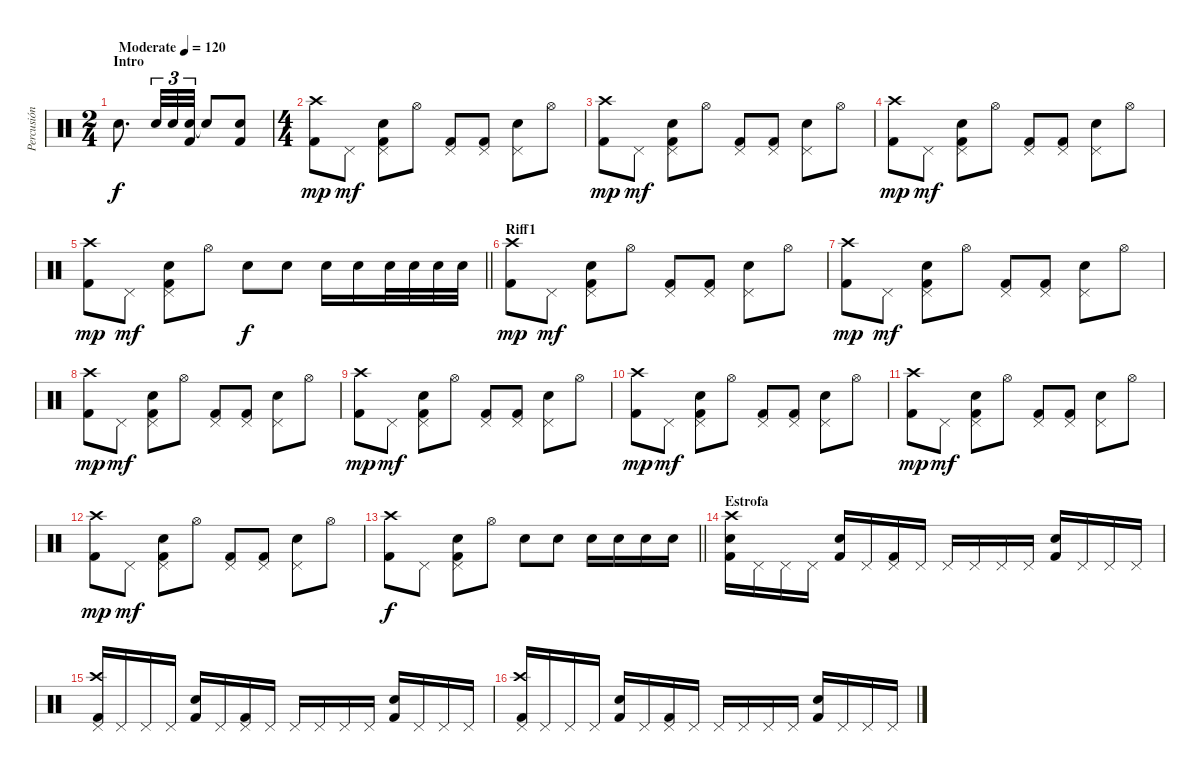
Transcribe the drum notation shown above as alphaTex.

\track ("Percusión" "Percusión") {instrument percussion}
\staff {score}
\articulation defaults
\ts (2 4)
\section ("" "Intro")
\tempo (120 "Moderate")
\clef neutral
\ks c "Snare (hit) 2".8{d dy f} "Snare (hit) 2".32{tu (3 2)} "Snare (hit) 2".32{tu (3 2)}
("Snare (hit) 2" "Kick (hit) 2").32{tu (3 2)} "Snare (hit) 2"{t}.8 ("Snare (hit) 2" "Kick (hit) 2").8 |
\ts (4 4)
("Crash high (hit)" "Kick (hit) 2").8{dy mp} "Pedal Hi-Hat (hit)".8{dy mf} ("Snare (hit) 2" "Kick (hit) 2" "Pedal Hi-Hat (hit)").8 "Hi-Hat (open)".8 ("Kick (hit) 2" "Pedal Hi-Hat (hit)").8 ("Kick (hit) 2" "Pedal Hi-Hat (hit)").8 ("Snare (hit) 2" "Pedal Hi-Hat (hit)").8 "Hi-Hat (open)".8 |
("Crash high (hit)" "Kick (hit) 2").8{dy mp} "Pedal Hi-Hat (hit)".8{dy mf} ("Snare (hit) 2" "Kick (hit) 2" "Pedal Hi-Hat (hit)").8 "Hi-Hat (open)".8 ("Kick (hit) 2" "Pedal Hi-Hat (hit)").8 ("Kick (hit) 2" "Pedal Hi-Hat (hit)").8 ("Snare (hit) 2" "Pedal Hi-Hat (hit)").8 "Hi-Hat (open)".8 |
("Crash high (hit)" "Kick (hit) 2").8{dy mp} "Pedal Hi-Hat (hit)".8{dy mf} ("Snare (hit) 2" "Kick (hit) 2" "Pedal Hi-Hat (hit)").8 "Hi-Hat (open)".8 ("Kick (hit) 2" "Pedal Hi-Hat (hit)").8 ("Kick (hit) 2" "Pedal Hi-Hat (hit)").8 ("Snare (hit) 2" "Pedal Hi-Hat (hit)").8 "Hi-Hat (open)".8 |
\barLineRight lightlight
("Crash high (hit)" "Kick (hit) 2").8{dy mp} "Pedal Hi-Hat (hit)".8{dy mf} ("Snare (hit) 2" "Kick (hit) 2" "Pedal Hi-Hat (hit)").8 "Hi-Hat (open)".8 "Snare (hit) 2".8{dy f} "Snare (hit) 2".8 "Snare (hit) 2".16 "Snare (hit) 2".16 "Snare (hit) 2".32 "Snare (hit) 2".32 "Snare (hit) 2".32 "Snare (hit) 2".32 |
\section ("" "Riff1")
("Crash high (hit)" "Kick (hit) 2").8{dy mp} "Pedal Hi-Hat (hit)".8{dy mf} ("Snare (hit) 2" "Kick (hit) 2" "Pedal Hi-Hat (hit)").8 "Hi-Hat (open)".8 ("Kick (hit) 2" "Pedal Hi-Hat (hit)").8 ("Kick (hit) 2" "Pedal Hi-Hat (hit)").8 ("Snare (hit) 2" "Pedal Hi-Hat (hit)").8 "Hi-Hat (open)".8 |
("Crash high (hit)" "Kick (hit) 2").8{dy mp} "Pedal Hi-Hat (hit)".8{dy mf} ("Snare (hit) 2" "Kick (hit) 2" "Pedal Hi-Hat (hit)").8 "Hi-Hat (open)".8 ("Kick (hit) 2" "Pedal Hi-Hat (hit)").8 ("Kick (hit) 2" "Pedal Hi-Hat (hit)").8 ("Snare (hit) 2" "Pedal Hi-Hat (hit)").8 "Hi-Hat (open)".8 |
("Crash high (hit)" "Kick (hit) 2").8{dy mp} "Pedal Hi-Hat (hit)".8{dy mf} ("Snare (hit) 2" "Kick (hit) 2" "Pedal Hi-Hat (hit)").8 "Hi-Hat (open)".8 ("Kick (hit) 2" "Pedal Hi-Hat (hit)").8 ("Kick (hit) 2" "Pedal Hi-Hat (hit)").8 ("Snare (hit) 2" "Pedal Hi-Hat (hit)").8 "Hi-Hat (open)".8 |
("Crash high (hit)" "Kick (hit) 2").8{dy mp} "Pedal Hi-Hat (hit)".8{dy mf} ("Snare (hit) 2" "Kick (hit) 2" "Pedal Hi-Hat (hit)").8 "Hi-Hat (open)".8 ("Kick (hit) 2" "Pedal Hi-Hat (hit)").8 ("Kick (hit) 2" "Pedal Hi-Hat (hit)").8 ("Snare (hit) 2" "Pedal Hi-Hat (hit)").8 "Hi-Hat (open)".8 |
("Crash high (hit)" "Kick (hit) 2").8{dy mp} "Pedal Hi-Hat (hit)".8{dy mf} ("Snare (hit) 2" "Kick (hit) 2" "Pedal Hi-Hat (hit)").8 "Hi-Hat (open)".8 ("Kick (hit) 2" "Pedal Hi-Hat (hit)").8 ("Kick (hit) 2" "Pedal Hi-Hat (hit)").8 ("Snare (hit) 2" "Pedal Hi-Hat (hit)").8 "Hi-Hat (open)".8 |
("Crash high (hit)" "Kick (hit) 2").8{dy mp} "Pedal Hi-Hat (hit)".8{dy mf} ("Snare (hit) 2" "Kick (hit) 2" "Pedal Hi-Hat (hit)").8 "Hi-Hat (open)".8 ("Kick (hit) 2" "Pedal Hi-Hat (hit)").8 ("Kick (hit) 2" "Pedal Hi-Hat (hit)").8 ("Snare (hit) 2" "Pedal Hi-Hat (hit)").8 "Hi-Hat (open)".8 |
("Crash high (hit)" "Kick (hit) 2").8{dy mp} "Pedal Hi-Hat (hit)".8{dy mf} ("Snare (hit) 2" "Kick (hit) 2" "Pedal Hi-Hat (hit)").8 "Hi-Hat (open)".8 ("Kick (hit) 2" "Pedal Hi-Hat (hit)").8 ("Kick (hit) 2" "Pedal Hi-Hat (hit)").8 ("Snare (hit) 2" "Pedal Hi-Hat (hit)").8 "Hi-Hat (open)".8 |
\barLineRight lightlight
("Crash high (hit)" "Kick (hit) 2").8{dy f} "Pedal Hi-Hat (hit)".8 ("Snare (hit) 2" "Kick (hit) 2" "Pedal Hi-Hat (hit)").8 "Hi-Hat (open)".8 "Snare (hit) 2".8 "Snare (hit) 2".8 "Snare (hit) 2".16 "Snare (hit) 2".16 "Snare (hit) 2".16 "Snare (hit) 2".16 |
\section ("" "Estrofa")
("Snare (hit) 2" "Kick (hit) 2" "Crash high (hit)").16 "Pedal Hi-Hat (hit)".16 "Pedal Hi-Hat (hit)".16 "Pedal Hi-Hat (hit)".16 ("Snare (hit) 2" "Kick (hit) 2").16 "Pedal Hi-Hat (hit)".16 ("Pedal Hi-Hat (hit)" "Kick (hit) 2").16 "Pedal Hi-Hat (hit)".16 "Pedal Hi-Hat (hit)".16 "Pedal Hi-Hat (hit)".16 "Pedal Hi-Hat (hit)".16 "Pedal Hi-Hat (hit)".16 ("Snare (hit) 2" "Kick (hit) 2").16 "Pedal Hi-Hat (hit)".16 "Pedal Hi-Hat (hit)".16 "Pedal Hi-Hat (hit)".16 |
("Pedal Hi-Hat (hit)" "Kick (hit) 2" "Crash high (hit)").16 "Pedal Hi-Hat (hit)".16 "Pedal Hi-Hat (hit)".16 "Pedal Hi-Hat (hit)".16 ("Snare (hit) 2" "Kick (hit) 2").16 "Pedal Hi-Hat (hit)".16 ("Pedal Hi-Hat (hit)" "Kick (hit) 2").16 "Pedal Hi-Hat (hit)".16 "Pedal Hi-Hat (hit)".16 "Pedal Hi-Hat (hit)".16 "Pedal Hi-Hat (hit)".16 "Pedal Hi-Hat (hit)".16 ("Snare (hit) 2" "Kick (hit) 2").16 "Pedal Hi-Hat (hit)".16 "Pedal Hi-Hat (hit)".16 "Pedal Hi-Hat (hit)".16 |
("Pedal Hi-Hat (hit)" "Kick (hit) 2" "Crash high (hit)").16 "Pedal Hi-Hat (hit)".16 "Pedal Hi-Hat (hit)".16 "Pedal Hi-Hat (hit)".16 ("Snare (hit) 2" "Kick (hit) 2").16 "Pedal Hi-Hat (hit)".16 ("Pedal Hi-Hat (hit)" "Kick (hit) 2").16 "Pedal Hi-Hat (hit)".16 "Pedal Hi-Hat (hit)".16 "Pedal Hi-Hat (hit)".16 "Pedal Hi-Hat (hit)".16 "Pedal Hi-Hat (hit)".16 ("Snare (hit) 2" "Kick (hit) 2").16 "Pedal Hi-Hat (hit)".16 "Pedal Hi-Hat (hit)".16 "Pedal Hi-Hat (hit)".16
